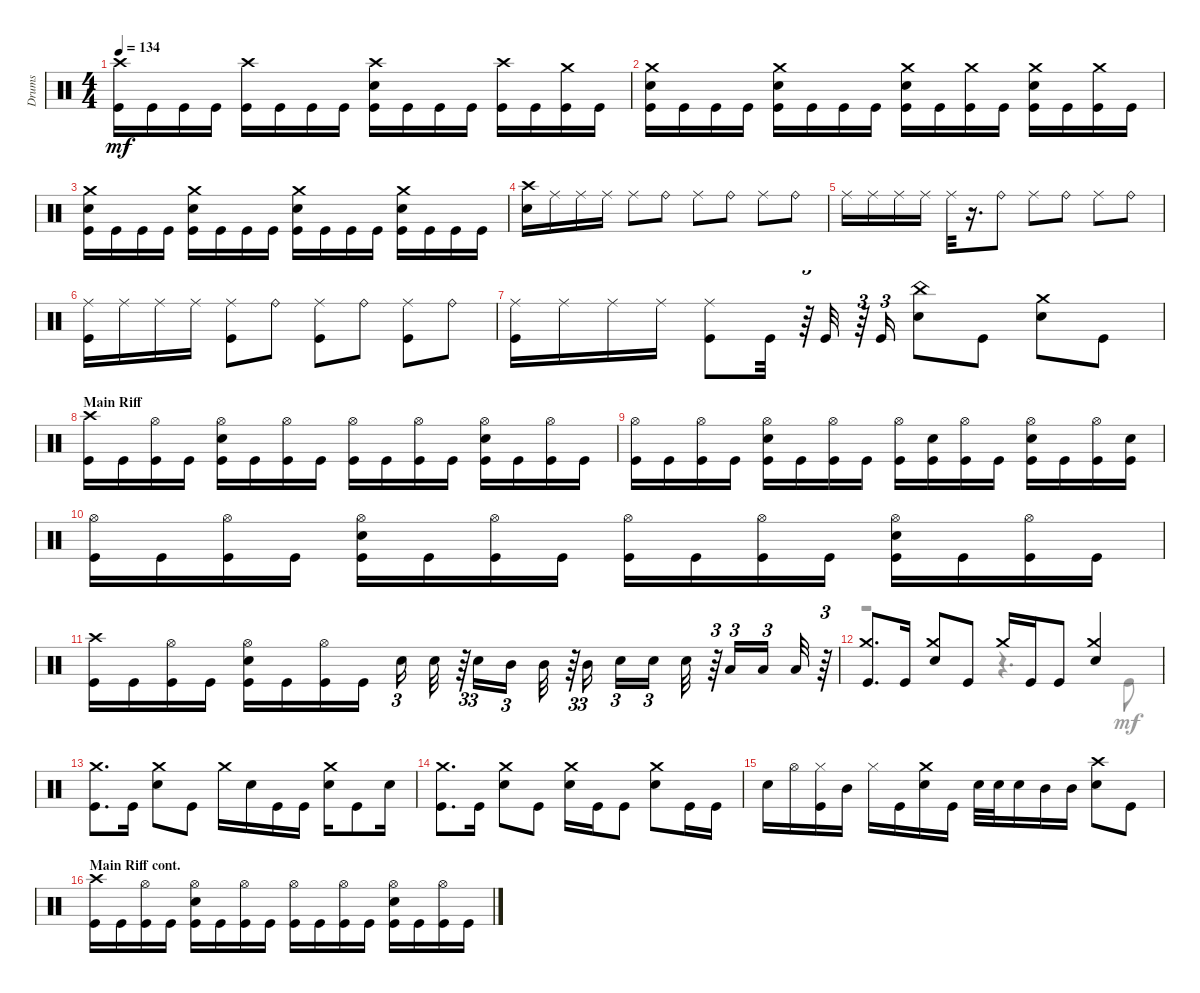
\track ("Drums" "Drums") {instrument percussion}
\staff {score}
\articulation defaults
\voice
\ts (4 4)
\tempo 134
\clef neutral
\ks aminor
("Crash high (hit)" "Kick (hit)").16{dy mf} "Kick (hit)".16 "Kick (hit)".16 "Kick (hit)".16 ("Crash high (hit)" "Kick (hit)").16 "Kick (hit)".16 "Kick (hit)".16 "Kick (hit)".16 ("Kick (hit)" "Snare (hit) 2" "Crash high (hit)").16 "Kick (hit)".16 "Kick (hit)".16 "Kick (hit)".16 ("Crash high (hit)" "Kick (hit)").16 "Kick (hit)".16 ("Kick (hit)" "Crash medium (hit)").16 "Kick (hit)".16 |
("Crash medium (hit)" "Kick (hit)" "Snare (hit) 2").16 "Kick (hit)".16 "Kick (hit)".16 "Kick (hit)".16 ("Snare (hit) 2" "Kick (hit)" "Crash medium (hit)").16 "Kick (hit)".16 "Kick (hit)".16 "Kick (hit)".16 ("Crash medium (hit)" "Kick (hit)" "Snare (hit) 2").16 "Kick (hit)".16 ("Crash medium (hit)" "Kick (hit)").16 "Kick (hit)".16 ("Snare (hit) 2" "Kick (hit)" "Crash medium (hit)").16 "Kick (hit)".16 ("Crash medium (hit)" "Kick (hit)").16 "Kick (hit)".16 |
("Kick (hit)" "Crash medium (hit)" "Snare (hit) 2").16 "Kick (hit)".16 "Kick (hit)".16 "Kick (hit)".16 ("Snare (hit) 2" "Kick (hit)" "Crash medium (hit)").16 "Kick (hit)".16 "Kick (hit)".16 "Kick (hit)".16 ("Kick (hit)" "Snare (hit) 2" "Crash medium (hit)").16 "Kick (hit)".16 "Kick (hit)".16 "Kick (hit)".16 ("Snare (hit) 2" "Crash medium (hit)" "Kick (hit)").16 "Kick (hit)".16 "Kick (hit)".16 "Kick (hit)".16 |
("Snare (hit) 2" "Crash high (hit)").16 "Ride (middle)".16 "Ride (middle)".16 "Ride (middle)".16 "Ride (middle)".8 "Ride (bell)".8 "Ride (middle)".8 "Ride (bell)".8 "Ride (middle)".8 "Ride (bell)".8 |
"Ride (middle)".16 "Ride (middle)".16 "Ride (middle)".16 "Ride (middle)".16 "Ride (middle)".32 r.16{d} "Ride (bell)".8 "Ride (middle)".8 "Ride (bell)".8 "Ride (middle)".8 "Ride (bell)".8 |
("Kick (hit)" "Ride (middle)").16 "Ride (middle)".16 "Ride (middle)".16 "Ride (middle)".16 ("Ride (middle)" "Kick (hit)").8 "Ride (bell)".8 ("Ride (middle)" "Kick (hit)").8 "Ride (bell)".8 ("Kick (hit)" "Ride (middle)").8 "Ride (bell)".8 |
("Ride (middle)" "Kick (hit)").16 "Ride (middle)".16 "Ride (middle)".16 "Ride (middle)".16 ("Ride (middle)" "Kick (hit)").8 "Kick (hit)".32 r.64{tu (3 2)} "Kick (hit)".32 r.64{tu (3 2)} "Kick (hit)".16{tu (3 2)} ("China (hit)" "Snare (hit) 2").8 "Kick (hit)".8 ("Crash medium (hit)" "Snare (hit) 2").8 "Kick (hit)".8 |
\section ("" "Main Riff")
("Crash high (hit)" "Kick (hit)").16 "Kick (hit)".16 ("Hi-Hat (open)" "Kick (hit)").16 "Kick (hit)".16 ("Snare (hit) 2" "Hi-Hat (open)" "Kick (hit)").16 "Kick (hit)".16 ("Kick (hit)" "Hi-Hat (open)").16 "Kick (hit)".16 ("Hi-Hat (open)" "Kick (hit)").16 "Kick (hit)".16 ("Kick (hit)" "Hi-Hat (open)").16 "Kick (hit)".16 ("Snare (hit) 2" "Hi-Hat (open)" "Kick (hit)").16 "Kick (hit)".16 ("Hi-Hat (open)" "Kick (hit)").16 "Kick (hit)".16 |
("Kick (hit)" "Hi-Hat (open)").16 "Kick (hit)".16 ("Kick (hit)" "Hi-Hat (open)").16 "Kick (hit)".16 ("Snare (hit) 2" "Kick (hit)" "Hi-Hat (open)").16 "Kick (hit)".16 ("Kick (hit)" "Hi-Hat (open)").16 "Kick (hit)".16 ("Hi-Hat (open)" "Kick (hit)").16 ("Snare (hit) 2" "Kick (hit)").16 ("Hi-Hat (open)" "Kick (hit)").16 "Kick (hit)".16 ("Snare (hit) 2" "Hi-Hat (open)" "Kick (hit)").16 "Kick (hit)".16 ("Kick (hit)" "Hi-Hat (open)").16 ("Snare (hit) 2" "Kick (hit)").16 |
("Hi-Hat (open)" "Kick (hit)").16 "Kick (hit)".16 ("Hi-Hat (open)" "Kick (hit)").16 "Kick (hit)".16 ("Snare (hit) 2" "Hi-Hat (open)" "Kick (hit)").16 "Kick (hit)".16 ("Kick (hit)" "Hi-Hat (open)").16 "Kick (hit)".16 ("Hi-Hat (open)" "Kick (hit)").16 "Kick (hit)".16 ("Kick (hit)" "Hi-Hat (open)").16 "Kick (hit)".16 ("Snare (hit) 2" "Hi-Hat (open)" "Kick (hit)").16 "Kick (hit)".16 ("Hi-Hat (open)" "Kick (hit)").16 "Kick (hit)".16 |
("Kick (hit)" "Crash high (hit)").16 "Kick (hit)".16 ("Kick (hit)" "Hi-Hat (open)").16 "Kick (hit)".16 ("Snare (hit) 2" "Kick (hit)" "Hi-Hat (open)").16 "Kick (hit)".16 ("Hi-Hat (open)" "Kick (hit)").16 "Kick (hit)".16 "Snare (hit) 2".16{tu (3 2)} "Snare (hit) 2".32 r.64{tu (3 2)} "Snare (hit) 2".16{tu (3 2)} "Mid Tom (hit)".16{tu (3 2)} "Mid Tom (hit)".32 r.64{tu (3 2)} "Mid Tom (hit)".16{tu (3 2)} "Snare (hit) 2".16{tu (3 2)} "Snare (hit) 2".16{tu (3 2)} "Snare (hit) 2".32 r.64{tu (3 2)} "Low Tom (hit)".16{tu (3 2)} "Low Tom (hit)".16{tu (3 2)} "Low Tom (hit)".32 r.64{tu (3 2)} |
("Crash medium (hit)" "Kick (hit)").8{d} "Kick (hit)".16 ("Snare (hit) 2" "Crash medium (hit)").8 "Kick (hit)".8 "Crash medium (hit)".16 "Kick (hit)".16 "Kick (hit)".8 ("Crash medium (hit)" "Snare (hit) 2").4 |
("Crash medium (hit)" "Kick (hit)").8{d} "Kick (hit)".16 ("Crash medium (hit)" "Snare (hit) 2").8 "Kick (hit)".8 "Crash medium (hit)".16 "Snare (hit) 2".16 "Kick (hit)".16 "Kick (hit)".16 ("Snare (hit) 2" "Crash medium (hit)").16 "Kick (hit)".8 "Snare (hit) 2".16 |
("Crash medium (hit)" "Kick (hit)").8{d} "Kick (hit)".16 ("Crash medium (hit)" "Snare (hit) 2").8 "Kick (hit)".8 ("Crash medium (hit)" "Snare (hit) 2").16 "Kick (hit)".16 "Kick (hit)".8 ("Snare (hit) 2" "Crash medium (hit)").8 "Kick (hit)".16 "Kick (hit)".16 |
"Snare (hit) 2".16 "Hi-Hat (open)".16 ("Kick (hit)" "Hi-Hat (closed)").16 "Mid Tom (hit)".16 "Hi-Hat (closed)".16 "Kick (hit)".16 ("Snare (hit) 2" "Crash medium (hit)").16 "Kick (hit)".16 "Snare (hit) 2".32 "Snare (hit) 2".32 "Snare (hit) 2".16 "Mid Tom (hit)".16 "Mid Tom (hit)".16 ("Snare (hit) 2" "Crash high (hit)").8 "Kick (hit)".8 |
\section ("" "Main Riff cont.")
("Crash high (hit)" "Kick (hit)").16 "Kick (hit)".16 ("Hi-Hat (open)" "Kick (hit)").16 "Kick (hit)".16 ("Snare (hit) 2" "Hi-Hat (open)" "Kick (hit)").16 "Kick (hit)".16 ("Kick (hit)" "Hi-Hat (open)").16 "Kick (hit)".16 ("Hi-Hat (open)" "Kick (hit)").16 "Kick (hit)".16 ("Kick (hit)" "Hi-Hat (open)").16 "Kick (hit)".16 ("Snare (hit) 2" "Hi-Hat (open)" "Kick (hit)").16 "Kick (hit)".16 ("Hi-Hat (open)" "Kick (hit)").16 "Kick (hit)".16
\voice
\clef neutral
\ottava regular
\simile none
\ks aminor
|
|
|
|
|
|
|
|
|
|
|
r.2 r.4{d} "Kick (hit)".8 |
|
|
|
